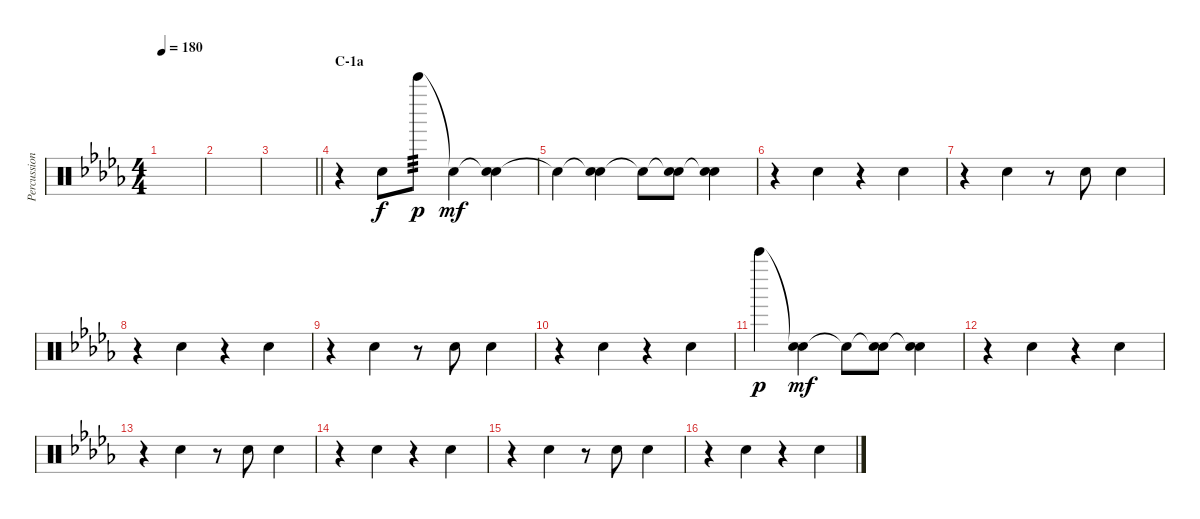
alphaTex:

\track ("Percussion I (Tainaka Ritsu)" "Percussion") {instrument percussion}
\staff {score}
\articulation defaults
\ts (4 4)
\tempo 180
\clef neutral
\ks db
|
|
\barLineRight lightlight
|
\section ("" "C-1a")
r.4 "Hand Clap (hit)".8 "Bell Tree (hit)".8{tp 3 dy p} "Snare (hit)"{t}.4{dy mf} ("Snare (hit)"{t} "Hand Clap (hit)").4 |
"Snare (hit)"{t}.4 ("Snare (hit)"{t} "Hand Clap (hit)").4 "Snare (hit)"{t}.8 ("Snare (hit)"{t} "Hand Clap (hit)").8 ("Snare (hit)"{t} "Hand Clap (hit)").4 |
r.4 "Hand Clap (hit)".4 r.4 "Hand Clap (hit)".4 |
r.4 "Hand Clap (hit)".4 r.8 "Hand Clap (hit)".8 "Hand Clap (hit)".4 |
r.4 "Hand Clap (hit)".4 r.4 "Hand Clap (hit)".4 |
r.4 "Hand Clap (hit)".4 r.8 "Hand Clap (hit)".8 "Hand Clap (hit)".4 |
r.4 "Hand Clap (hit)".4 r.4 "Hand Clap (hit)".4 |
"Bell Tree (hit)".4{dy p} ("Snare (hit)"{t} "Hand Clap (hit)").4{dy mf} "Snare (hit)"{t}.8 ("Snare (hit)"{t} "Hand Clap (hit)").8 ("Snare (hit)"{t} "Hand Clap (hit)").4 |
r.4 "Hand Clap (hit)".4 r.4 "Hand Clap (hit)".4 |
r.4 "Hand Clap (hit)".4 r.8 "Hand Clap (hit)".8 "Hand Clap (hit)".4 |
r.4 "Hand Clap (hit)".4 r.4 "Hand Clap (hit)".4 |
r.4 "Hand Clap (hit)".4 r.8 "Hand Clap (hit)".8 "Hand Clap (hit)".4 |
r.4 "Hand Clap (hit)".4 r.4 "Hand Clap (hit)".4
